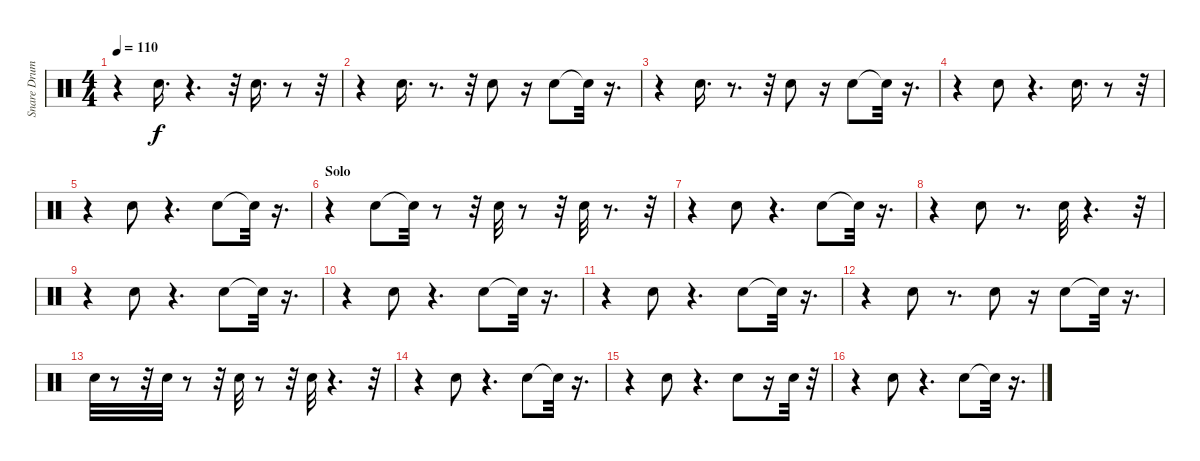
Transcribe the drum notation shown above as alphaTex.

\track ("Snare Drum" "Snare Drum") {instrument percussion}
\staff {score}
\articulation defaults
\ts (4 4)
\tempo 110
\clef neutral
\ks c
r.4{dy f} "Snare (hit) 2".16{d} r.4{d} r.32 "Snare (hit) 2".16{d} r.8 r.32 |
r.4 "Snare (hit) 2".16{d} r.8{d} r.32 "Snare (hit) 2".8 r.16 "Snare (hit) 2".8 "Snare (hit)"{t}.32 r.16{d} |
r.4 "Snare (hit) 2".16{d} r.8{d} r.32 "Snare (hit) 2".8 r.16 "Snare (hit) 2".8 "Snare (hit)"{t}.32 r.16{d} |
r.4 "Snare (hit) 2".8 r.4{d} "Snare (hit) 2".16{d} r.8 r.32 |
r.4 "Snare (hit) 2".8 r.4{d} "Snare (hit) 2".8 "Snare (hit)"{t}.32 r.16{d} |
\section ("" "Solo")
r.4 "Snare (hit) 2".8 "Snare (hit)"{t}.32 r.8 r.32 "Snare (hit) 2".32 r.8 r.32 "Snare (hit) 2".32 r.8{d} r.32 |
r.4 "Snare (hit) 2".8 r.4{d} "Snare (hit) 2".8 "Snare (hit)"{t}.32 r.16{d} |
r.4 "Snare (hit) 2".8 r.8{d} "Snare (hit) 2".32 r.4{d} r.32 |
r.4 "Snare (hit) 2".8 r.4{d} "Snare (hit) 2".8 "Snare (hit)"{t}.32 r.16{d} |
r.4 "Snare (hit) 2".8 r.4{d} "Snare (hit) 2".8 "Snare (hit)"{t}.32 r.16{d} |
r.4 "Snare (hit) 2".8 r.4{d} "Snare (hit) 2".8 "Snare (hit)"{t}.32 r.16{d} |
r.4 "Snare (hit) 2".8 r.8{d} "Snare (hit) 2".8 r.16 "Snare (hit) 2".8 "Snare (hit)"{t}.32 r.16{d} |
"Snare (hit) 2".32 r.8 r.32 "Snare (hit) 2".32 r.8 r.32 "Snare (hit) 2".32 r.8 r.32 "Snare (hit) 2".32 r.4{d} r.32 |
r.4 "Snare (hit) 2".8 r.4{d} "Snare (hit) 2".8 "Snare (hit)"{t}.32 r.16{d} |
r.4 "Snare (hit) 2".8 r.4{d} "Snare (hit) 2".8 r.16 "Snare (hit) 2".32 r.32 |
r.4 "Snare (hit) 2".8 r.4{d} "Snare (hit) 2".8 "Snare (hit)"{t}.32 r.16{d}
